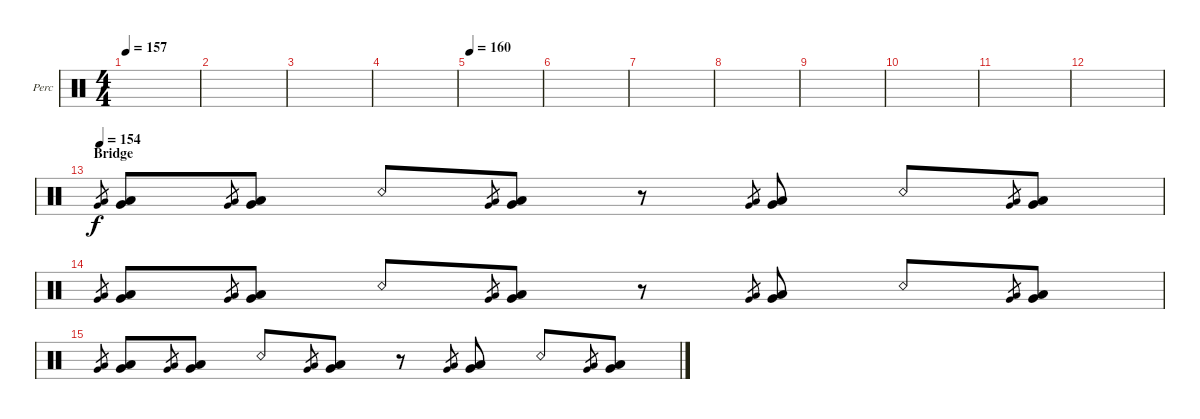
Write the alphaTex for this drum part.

\defaultSystemsLayout 4
\bracketExtendMode groupsimilarinstruments
\firstSystemTrackNameOrientation horizontal
\otherSystemsTrackNameOrientation horizontal
\track ("Percussion 1" "Perc") {instrument percussion}
\staff {score}
\articulation defaults
\ts (4 4)
\tempo 157
\clef neutral
\ks c
|
|
|
|
\tempo 160
|
|
|
|
|
|
|
|
\section ("" "Bridge")
\tempo 154
("Low Tom (hit)" "Very Low Tom (hit)").8{gr} ("Low Tom (hit)" "Very Low Tom (hit)").8 ("Low Tom (hit)" "Very Low Tom (hit)").8{gr} ("Low Tom (hit)" "Very Low Tom (hit)").8 "Snare (rim shot)".8 ("Low Tom (hit)" "Very Low Tom (hit)").8{gr} ("Low Tom (hit)" "Very Low Tom (hit)").8 r.8 ("Low Tom (hit)" "Very Low Tom (hit)").8{gr} ("Low Tom (hit)" "Very Low Tom (hit)").8 "Snare (rim shot)".8 ("Low Tom (hit)" "Very Low Tom (hit)").8{gr} ("Low Tom (hit)" "Very Low Tom (hit)").8 |
("Low Tom (hit)" "Very Low Tom (hit)").8{gr} ("Low Tom (hit)" "Very Low Tom (hit)").8 ("Low Tom (hit)" "Very Low Tom (hit)").8{gr} ("Low Tom (hit)" "Very Low Tom (hit)").8 "Snare (rim shot)".8 ("Low Tom (hit)" "Very Low Tom (hit)").8{gr} ("Low Tom (hit)" "Very Low Tom (hit)").8 r.8 ("Low Tom (hit)" "Very Low Tom (hit)").8{gr} ("Low Tom (hit)" "Very Low Tom (hit)").8 "Snare (rim shot)".8 ("Low Tom (hit)" "Very Low Tom (hit)").8{gr} ("Low Tom (hit)" "Very Low Tom (hit)").8 |
("Low Tom (hit)" "Very Low Tom (hit)").8{gr} ("Low Tom (hit)" "Very Low Tom (hit)").8 ("Low Tom (hit)" "Very Low Tom (hit)").8{gr} ("Low Tom (hit)" "Very Low Tom (hit)").8 "Snare (rim shot)".8 ("Low Tom (hit)" "Very Low Tom (hit)").8{gr} ("Low Tom (hit)" "Very Low Tom (hit)").8 r.8 ("Low Tom (hit)" "Very Low Tom (hit)").8{gr} ("Low Tom (hit)" "Very Low Tom (hit)").8 "Snare (rim shot)".8 ("Low Tom (hit)" "Very Low Tom (hit)").8{gr} ("Low Tom (hit)" "Very Low Tom (hit)").8
